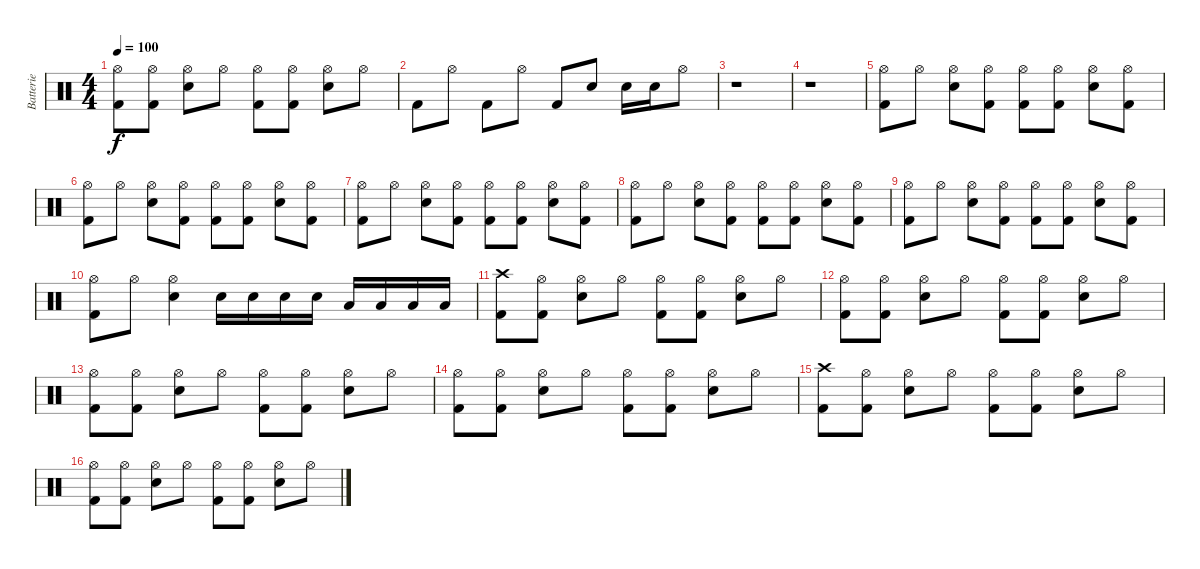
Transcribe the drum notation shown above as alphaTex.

\track ("Batterie" "Batterie") {instrument percussion}
\staff {score}
\articulation defaults
\ts (4 4)
\tempo 100
\clef neutral
\ks c
("Hi-Hat (open)" "Kick (hit) 2").8{dy f} ("Hi-Hat (open)" "Kick (hit) 2").8 ("Hi-Hat (open)" "Snare (hit) 2").8 "Hi-Hat (open)".8 ("Hi-Hat (open)" "Kick (hit) 2").8 ("Hi-Hat (open)" "Kick (hit) 2").8 ("Hi-Hat (open)" "Snare (hit) 2").8 "Hi-Hat (open)".8 |
"Kick (hit) 2".8 "Hi-Hat (open)".8 "Kick (hit) 2".8 "Hi-Hat (open)".8 "Kick (hit) 2".8 "Snare (hit) 2".8 "Snare (hit) 2".16 "Snare (hit) 2".16 "Hi-Hat (open)".8 |
r.1 |
r.1 |
("Hi-Hat (open)" "Kick (hit) 2").8 "Hi-Hat (open)".8 ("Hi-Hat (open)" "Snare (hit) 2").8 ("Hi-Hat (open)" "Kick (hit) 2").8 ("Hi-Hat (open)" "Kick (hit) 2").8 ("Hi-Hat (open)" "Kick (hit) 2").8 ("Hi-Hat (open)" "Snare (hit) 2").8 ("Hi-Hat (open)" "Kick (hit) 2").8 |
("Hi-Hat (open)" "Kick (hit) 2").8 "Hi-Hat (open)".8 ("Hi-Hat (open)" "Snare (hit) 2").8 ("Hi-Hat (open)" "Kick (hit) 2").8 ("Hi-Hat (open)" "Kick (hit) 2").8 ("Hi-Hat (open)" "Kick (hit) 2").8 ("Hi-Hat (open)" "Snare (hit) 2").8 ("Hi-Hat (open)" "Kick (hit) 2").8 |
("Hi-Hat (open)" "Kick (hit) 2").8 "Hi-Hat (open)".8 ("Hi-Hat (open)" "Snare (hit) 2").8 ("Hi-Hat (open)" "Kick (hit) 2").8 ("Hi-Hat (open)" "Kick (hit) 2").8 ("Hi-Hat (open)" "Kick (hit) 2").8 ("Hi-Hat (open)" "Snare (hit) 2").8 ("Hi-Hat (open)" "Kick (hit) 2").8 |
("Hi-Hat (open)" "Kick (hit) 2").8 "Hi-Hat (open)".8 ("Hi-Hat (open)" "Snare (hit) 2").8 ("Hi-Hat (open)" "Kick (hit) 2").8 ("Hi-Hat (open)" "Kick (hit) 2").8 ("Hi-Hat (open)" "Kick (hit) 2").8 ("Hi-Hat (open)" "Snare (hit) 2").8 ("Hi-Hat (open)" "Kick (hit) 2").8 |
("Hi-Hat (open)" "Kick (hit) 2").8 "Hi-Hat (open)".8 ("Hi-Hat (open)" "Snare (hit) 2").8 ("Hi-Hat (open)" "Kick (hit) 2").8 ("Hi-Hat (open)" "Kick (hit) 2").8 ("Hi-Hat (open)" "Kick (hit) 2").8 ("Hi-Hat (open)" "Snare (hit) 2").8 ("Hi-Hat (open)" "Kick (hit) 2").8 |
("Hi-Hat (open)" "Kick (hit) 2").8 "Hi-Hat (open)".8 ("Hi-Hat (open)" "Snare (hit) 2").4 "Snare (hit) 2".16 "Snare (hit) 2".16 "Snare (hit) 2".16 "Snare (hit) 2".16 "Low Tom (hit)".16 "Low Tom (hit)".16 "Low Tom (hit)".16 "Low Tom (hit)".16 |
("Crash high (hit)" "Kick (hit) 2").8 ("Hi-Hat (open)" "Kick (hit) 2").8 ("Hi-Hat (open)" "Snare (hit) 2").8 "Hi-Hat (open)".8 ("Hi-Hat (open)" "Kick (hit) 2").8 ("Hi-Hat (open)" "Kick (hit) 2").8 ("Hi-Hat (open)" "Snare (hit) 2").8 "Hi-Hat (open)".8 |
("Hi-Hat (open)" "Kick (hit) 2").8 ("Hi-Hat (open)" "Kick (hit) 2").8 ("Hi-Hat (open)" "Snare (hit) 2").8 "Hi-Hat (open)".8 ("Hi-Hat (open)" "Kick (hit) 2").8 ("Hi-Hat (open)" "Kick (hit) 2").8 ("Hi-Hat (open)" "Snare (hit) 2").8 "Hi-Hat (open)".8 |
("Hi-Hat (open)" "Kick (hit) 2").8 ("Hi-Hat (open)" "Kick (hit) 2").8 ("Hi-Hat (open)" "Snare (hit) 2").8 "Hi-Hat (open)".8 ("Hi-Hat (open)" "Kick (hit) 2").8 ("Hi-Hat (open)" "Kick (hit) 2").8 ("Hi-Hat (open)" "Snare (hit) 2").8 "Hi-Hat (open)".8 |
("Hi-Hat (open)" "Kick (hit) 2").8 ("Hi-Hat (open)" "Kick (hit) 2").8 ("Hi-Hat (open)" "Snare (hit) 2").8 "Hi-Hat (open)".8 ("Hi-Hat (open)" "Kick (hit) 2").8 ("Hi-Hat (open)" "Kick (hit) 2").8 ("Hi-Hat (open)" "Snare (hit) 2").8 "Hi-Hat (open)".8 |
("Crash high (hit)" "Kick (hit) 2").8 ("Hi-Hat (open)" "Kick (hit) 2").8 ("Hi-Hat (open)" "Snare (hit) 2").8 "Hi-Hat (open)".8 ("Hi-Hat (open)" "Kick (hit) 2").8 ("Hi-Hat (open)" "Kick (hit) 2").8 ("Hi-Hat (open)" "Snare (hit) 2").8 "Hi-Hat (open)".8 |
("Hi-Hat (open)" "Kick (hit) 2").8 ("Hi-Hat (open)" "Kick (hit) 2").8 ("Hi-Hat (open)" "Snare (hit) 2").8 "Hi-Hat (open)".8 ("Hi-Hat (open)" "Kick (hit) 2").8 ("Hi-Hat (open)" "Kick (hit) 2").8 ("Hi-Hat (open)" "Snare (hit) 2").8 "Hi-Hat (open)".8
